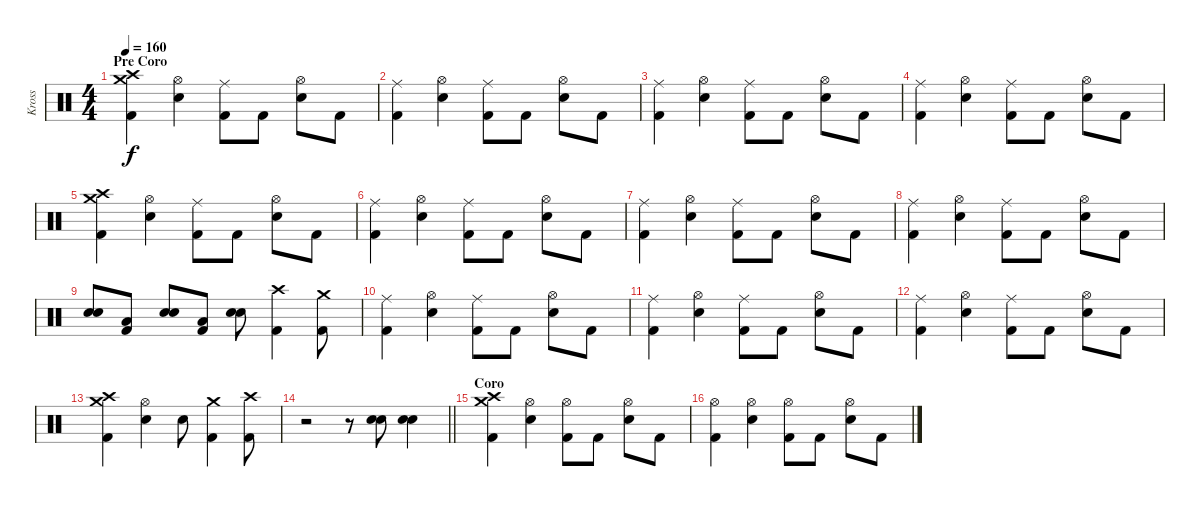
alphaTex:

\track ("Kross" "Kross") {instrument percussion}
\staff {score}
\articulation defaults
\ts (4 4)
\section ("" "Pre Coro")
\tempo 160
\clef neutral
\ks c
("Crash high (hit)" "Crash medium (hit)" "Kick (hit) 2").4{dy f} ("Hi-Hat (open)" "Electric Snare (hit)").4 ("Ride (middle)" "Kick (hit) 2").8 "Kick (hit) 2".8 ("Hi-Hat (open)" "Electric Snare (hit)").8 "Kick (hit) 2".8 |
("Ride (middle)" "Kick (hit) 2").4 ("Hi-Hat (open)" "Electric Snare (hit)").4 ("Ride (middle)" "Kick (hit) 2").8 "Kick (hit) 2".8 ("Hi-Hat (open)" "Electric Snare (hit)").8 "Kick (hit) 2".8 |
("Ride (middle)" "Kick (hit) 2").4 ("Hi-Hat (open)" "Electric Snare (hit)").4 ("Ride (middle)" "Kick (hit) 2").8 "Kick (hit) 2".8 ("Hi-Hat (open)" "Electric Snare (hit)").8 "Kick (hit) 2".8 |
("Ride (middle)" "Kick (hit) 2").4 ("Hi-Hat (open)" "Electric Snare (hit)").4 ("Ride (middle)" "Kick (hit) 2").8 "Kick (hit) 2".8 ("Hi-Hat (open)" "Electric Snare (hit)").8 "Kick (hit) 2".8 |
("Crash high (hit)" "Crash medium (hit)" "Kick (hit) 2").4 ("Hi-Hat (open)" "Electric Snare (hit)").4 ("Ride (middle)" "Kick (hit) 2").8 "Kick (hit) 2".8 ("Hi-Hat (open)" "Electric Snare (hit)").8 "Kick (hit) 2".8 |
("Ride (middle)" "Kick (hit) 2").4 ("Hi-Hat (open)" "Electric Snare (hit)").4 ("Ride (middle)" "Kick (hit) 2").8 "Kick (hit) 2".8 ("Hi-Hat (open)" "Electric Snare (hit)").8 "Kick (hit) 2".8 |
("Ride (middle)" "Kick (hit) 2").4 ("Hi-Hat (open)" "Electric Snare (hit)").4 ("Ride (middle)" "Kick (hit) 2").8 "Kick (hit) 2".8 ("Hi-Hat (open)" "Electric Snare (hit)").8 "Kick (hit) 2".8 |
("Ride (middle)" "Kick (hit) 2").4 ("Hi-Hat (open)" "Electric Snare (hit)").4 ("Ride (middle)" "Kick (hit) 2").8 "Kick (hit) 2".8 ("Hi-Hat (open)" "Electric Snare (hit)").8 "Kick (hit) 2".8 |
("Electric Snare (hit)" "Electric Snare (hit)").8 ("Low Floor Tom (hit)" "Kick (hit) 2").8 ("Electric Snare (hit)" "Electric Snare (hit)").8 ("Low Floor Tom (hit)" "Kick (hit) 2").8 ("Electric Snare (hit)" "Electric Snare (hit)").8 ("Crash high (hit)" "Kick (hit) 2").4 ("Crash medium (hit)" "Kick (hit) 2").8 |
("Ride (middle)" "Kick (hit) 2").4 ("Hi-Hat (open)" "Electric Snare (hit)").4 ("Ride (middle)" "Kick (hit) 2").8 "Kick (hit) 2".8 ("Hi-Hat (open)" "Electric Snare (hit)").8 "Kick (hit) 2".8 |
("Ride (middle)" "Kick (hit) 2").4 ("Hi-Hat (open)" "Electric Snare (hit)").4 ("Ride (middle)" "Kick (hit) 2").8 "Kick (hit) 2".8 ("Hi-Hat (open)" "Electric Snare (hit)").8 "Kick (hit) 2".8 |
("Ride (middle)" "Kick (hit) 2").4 ("Hi-Hat (open)" "Electric Snare (hit)").4 ("Ride (middle)" "Kick (hit) 2").8 "Kick (hit) 2".8 ("Hi-Hat (open)" "Electric Snare (hit)").8 "Kick (hit) 2".8 |
("Crash high (hit)" "Crash medium (hit)" "Kick (hit) 2").4 ("Hi-Hat (open)" "Electric Snare (hit)").4 "Electric Snare (hit)".8 ("Crash medium (hit)" "Kick (hit) 2").4 ("Crash high (hit)" "Kick (hit) 2").8 |
\barLineRight lightlight
r.2 r.8 ("Electric Snare (hit)" "Electric Snare (hit)").8 ("Electric Snare (hit)" "Electric Snare (hit)").4 |
\section ("" "Coro")
("Crash high (hit)" "Crash medium (hit)" "Kick (hit) 2").4 ("Hi-Hat (open)" "Electric Snare (hit)").4 ("Hi-Hat (open)" "Kick (hit) 2").8 "Kick (hit) 2".8 ("Hi-Hat (open)" "Electric Snare (hit)").8 "Kick (hit) 2".8 |
("Hi-Hat (open)" "Kick (hit) 2").4 ("Hi-Hat (open)" "Electric Snare (hit)").4 ("Hi-Hat (open)" "Kick (hit) 2").8 "Kick (hit) 2".8 ("Hi-Hat (open)" "Electric Snare (hit)").8 "Kick (hit) 2".8
